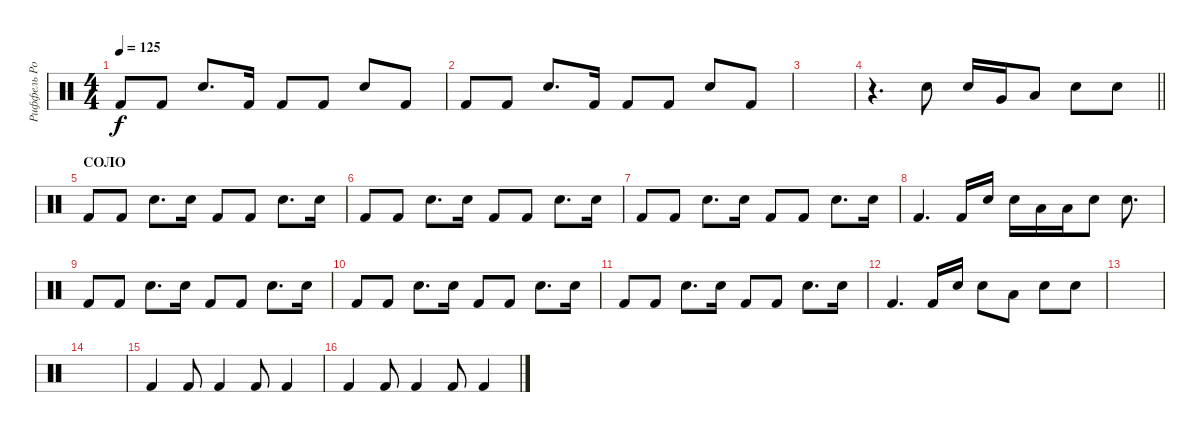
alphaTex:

\track ("Риффель Роман(главные)" "Риффель Ро") {instrument percussion}
\staff {score}
\articulation defaults
\ts (4 4)
\tempo 125
\clef neutral
\ks c "Kick (hit) 2".8{dy f} "Kick (hit) 2".8 "Electric Snare (hit)".8{d} "Kick (hit) 2".16 "Kick (hit) 2".8 "Kick (hit) 2".8 "Electric Snare (hit)".8 "Kick (hit) 2".8
|
"Kick (hit) 2".8 "Kick (hit) 2".8 "Electric Snare (hit)".8{d} "Kick (hit) 2".16 "Kick (hit) 2".8 "Kick (hit) 2".8 "Electric Snare (hit)".8 "Kick (hit) 2".8 |
|
\barLineRight lightlight
r.4{d} "Electric Snare (hit)".8 "Electric Snare (hit)".16 "Very Low Tom (hit)".16 "Low Floor Tom (hit)".8 "Electric Snare (hit)".8 "Electric Snare (hit)".8 |
\section ("" "СОЛО")
"Kick (hit) 2".8 "Kick (hit) 2".8 "Electric Snare (hit)".8{d} "Electric Snare (hit)".16 "Kick (hit) 2".8 "Kick (hit) 2".8 "Electric Snare (hit)".8{d} "Electric Snare (hit)".16 |
"Kick (hit) 2".8 "Kick (hit) 2".8 "Electric Snare (hit)".8{d} "Electric Snare (hit)".16 "Kick (hit) 2".8 "Kick (hit) 2".8 "Electric Snare (hit)".8{d} "Electric Snare (hit)".16 |
"Kick (hit) 2".8 "Kick (hit) 2".8 "Electric Snare (hit)".8{d} "Electric Snare (hit)".16 "Kick (hit) 2".8 "Kick (hit) 2".8 "Electric Snare (hit)".8{d} "Electric Snare (hit)".16 |
"Kick (hit) 2".4{d} "Kick (hit) 2".16 "Electric Snare (hit)".16 "Electric Snare (hit)".16 "Low Tom (hit)".16 "Low Tom (hit)".16 "Electric Snare (hit)".8 "Electric Snare (hit)".8{d} |
"Kick (hit) 2".8 "Kick (hit) 2".8 "Electric Snare (hit)".8{d} "Electric Snare (hit)".16 "Kick (hit) 2".8 "Kick (hit) 2".8 "Electric Snare (hit)".8{d} "Electric Snare (hit)".16 |
"Kick (hit) 2".8 "Kick (hit) 2".8 "Electric Snare (hit)".8{d} "Electric Snare (hit)".16 "Kick (hit) 2".8 "Kick (hit) 2".8 "Electric Snare (hit)".8{d} "Electric Snare (hit)".16 |
"Kick (hit) 2".8 "Kick (hit) 2".8 "Electric Snare (hit)".8{d} "Electric Snare (hit)".16 "Kick (hit) 2".8 "Kick (hit) 2".8 "Electric Snare (hit)".8{d} "Electric Snare (hit)".16 |
"Kick (hit) 2".4{d} "Kick (hit) 2".16 "Electric Snare (hit)".16 "Electric Snare (hit)".8 "Low Tom (hit)".8 "Electric Snare (hit)".8 "Electric Snare (hit)".8 |
|
|
"Kick (hit) 2".4 "Kick (hit) 2".8 "Kick (hit) 2".4 "Kick (hit) 2".8 "Kick (hit) 2".4 |
"Kick (hit) 2".4 "Kick (hit) 2".8 "Kick (hit) 2".4 "Kick (hit) 2".8 "Kick (hit) 2".4
